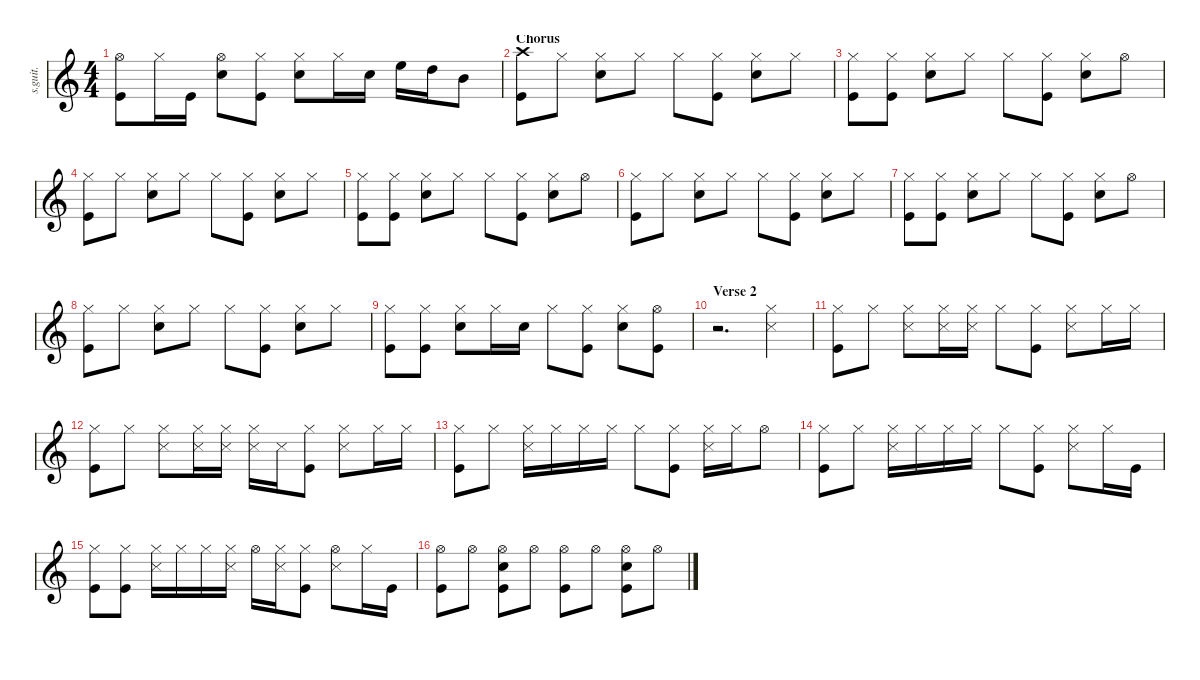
\defaultSystemsLayout 4
\hideDynamics
\bracketExtendMode nobrackets
\track ("Ethan Torchio (Drums)" "s.guit.") {instrument percussion}
\staff {score}
\articulation defaults
\ts (4 4)
\tempo (134 hide)
\clef g2
\ks c
("Hi-Hat (open)" "Kick (hit)").8{lyrics (0 "") lyrics (1 "") lyrics (2 "") lyrics (3 "") lyrics (4 "") dy ff} "Hi-Hat (closed)".16{lyrics (0 "") lyrics (1 "") lyrics (2 "") lyrics (3 "") lyrics (4 "")} "Kick (hit)".16{lyrics (0 "") lyrics (1 "") lyrics (2 "") lyrics (3 "") lyrics (4 "")} ("Hi-Hat (open)" "Snare (hit) 2").8{lyrics (0 "") lyrics (1 "") lyrics (2 "") lyrics (3 "") lyrics (4 "")} ("Kick (hit)" "Hi-Hat (closed)").8{lyrics (0 "") lyrics (1 "") lyrics (2 "") lyrics (3 "") lyrics (4 "")} ("Hi-Hat (closed)" "Snare (hit) 2").8{lyrics (0 "") lyrics (1 "") lyrics (2 "") lyrics (3 "") lyrics (4 "")} "Hi-Hat (closed)".16{lyrics (0 "") lyrics (1 "") lyrics (2 "") lyrics (3 "") lyrics (4 "")} "Snare (hit) 2".16{lyrics (0 "") lyrics (1 "") lyrics (2 "") lyrics (3 "") lyrics (4 "")} "High Floor Tom (hit)".16{lyrics (0 "") lyrics (1 "") lyrics (2 "") lyrics (3 "") lyrics (4 "")} "High Tom (hit)".16{lyrics (0 "") lyrics (1 "") lyrics (2 "") lyrics (3 "") lyrics (4 "")} "Mid Tom (hit)".8{lyrics (0 "") lyrics (1 "") lyrics (2 "") lyrics (3 "") lyrics (4 "")} |
\section ("" "Chorus")
("Crash high (hit)" "Kick (hit)").8{lyrics (0 "") lyrics (1 "") lyrics (2 "") lyrics (3 "") lyrics (4 "")} "Hi-Hat (closed)".8{lyrics (0 "") lyrics (1 "") lyrics (2 "") lyrics (3 "") lyrics (4 "")} ("Hi-Hat (closed)" "Snare (hit) 2").8{lyrics (0 "") lyrics (1 "") lyrics (2 "") lyrics (3 "") lyrics (4 "")} "Hi-Hat (closed)".8{lyrics (0 "") lyrics (1 "") lyrics (2 "") lyrics (3 "") lyrics (4 "")} "Hi-Hat (closed)".8{lyrics (0 "") lyrics (1 "") lyrics (2 "") lyrics (3 "") lyrics (4 "")} ("Hi-Hat (closed)" "Kick (hit)").8{lyrics (0 "") lyrics (1 "") lyrics (2 "") lyrics (3 "") lyrics (4 "")} ("Hi-Hat (closed)" "Snare (hit) 2").8{lyrics (0 "") lyrics (1 "") lyrics (2 "") lyrics (3 "") lyrics (4 "")} "Hi-Hat (closed)".8{lyrics (0 "") lyrics (1 "") lyrics (2 "") lyrics (3 "") lyrics (4 "")} |
("Hi-Hat (closed)" "Kick (hit)").8{lyrics (0 "") lyrics (1 "") lyrics (2 "") lyrics (3 "") lyrics (4 "")} ("Kick (hit)" "Hi-Hat (closed)").8{lyrics (0 "") lyrics (1 "") lyrics (2 "") lyrics (3 "") lyrics (4 "")} ("Hi-Hat (closed)" "Snare (hit) 2").8{lyrics (0 "") lyrics (1 "") lyrics (2 "") lyrics (3 "") lyrics (4 "")} "Hi-Hat (closed)".8{lyrics (0 "") lyrics (1 "") lyrics (2 "") lyrics (3 "") lyrics (4 "")} "Hi-Hat (closed)".8{lyrics (0 "") lyrics (1 "") lyrics (2 "") lyrics (3 "") lyrics (4 "")} ("Hi-Hat (closed)" "Kick (hit)").8{lyrics (0 "") lyrics (1 "") lyrics (2 "") lyrics (3 "") lyrics (4 "")} ("Hi-Hat (closed)" "Snare (hit) 2").8{lyrics (0 "") lyrics (1 "") lyrics (2 "") lyrics (3 "") lyrics (4 "")} "Hi-Hat (open)".8{lyrics (0 "") lyrics (1 "") lyrics (2 "") lyrics (3 "") lyrics (4 "")} |
("Kick (hit)" "Hi-Hat (closed)").8{lyrics (0 "") lyrics (1 "") lyrics (2 "") lyrics (3 "") lyrics (4 "")} "Hi-Hat (closed)".8{lyrics (0 "") lyrics (1 "") lyrics (2 "") lyrics (3 "") lyrics (4 "")} ("Hi-Hat (closed)" "Snare (hit) 2").8{lyrics (0 "") lyrics (1 "") lyrics (2 "") lyrics (3 "") lyrics (4 "")} "Hi-Hat (closed)".8{lyrics (0 "") lyrics (1 "") lyrics (2 "") lyrics (3 "") lyrics (4 "")} "Hi-Hat (closed)".8{lyrics (0 "") lyrics (1 "") lyrics (2 "") lyrics (3 "") lyrics (4 "")} ("Hi-Hat (closed)" "Kick (hit)").8{lyrics (0 "") lyrics (1 "") lyrics (2 "") lyrics (3 "") lyrics (4 "")} ("Hi-Hat (closed)" "Snare (hit) 2").8{lyrics (0 "") lyrics (1 "") lyrics (2 "") lyrics (3 "") lyrics (4 "")} "Hi-Hat (closed)".8{lyrics (0 "") lyrics (1 "") lyrics (2 "") lyrics (3 "") lyrics (4 "")} |
("Hi-Hat (closed)" "Kick (hit)").8{lyrics (0 "") lyrics (1 "") lyrics (2 "") lyrics (3 "") lyrics (4 "")} ("Kick (hit)" "Hi-Hat (closed)").8{lyrics (0 "") lyrics (1 "") lyrics (2 "") lyrics (3 "") lyrics (4 "")} ("Hi-Hat (closed)" "Snare (hit) 2").8{lyrics (0 "") lyrics (1 "") lyrics (2 "") lyrics (3 "") lyrics (4 "")} "Hi-Hat (closed)".8{lyrics (0 "") lyrics (1 "") lyrics (2 "") lyrics (3 "") lyrics (4 "")} "Hi-Hat (closed)".8{lyrics (0 "") lyrics (1 "") lyrics (2 "") lyrics (3 "") lyrics (4 "")} ("Hi-Hat (closed)" "Kick (hit)").8{lyrics (0 "") lyrics (1 "") lyrics (2 "") lyrics (3 "") lyrics (4 "")} ("Hi-Hat (closed)" "Snare (hit) 2").8{lyrics (0 "") lyrics (1 "") lyrics (2 "") lyrics (3 "") lyrics (4 "")} "Hi-Hat (open)".8{lyrics (0 "") lyrics (1 "") lyrics (2 "") lyrics (3 "") lyrics (4 "")} |
("Kick (hit)" "Hi-Hat (closed)").8{lyrics (0 "") lyrics (1 "") lyrics (2 "") lyrics (3 "") lyrics (4 "")} "Hi-Hat (closed)".8{lyrics (0 "") lyrics (1 "") lyrics (2 "") lyrics (3 "") lyrics (4 "")} ("Hi-Hat (closed)" "Snare (hit) 2").8{lyrics (0 "") lyrics (1 "") lyrics (2 "") lyrics (3 "") lyrics (4 "")} "Hi-Hat (closed)".8{lyrics (0 "") lyrics (1 "") lyrics (2 "") lyrics (3 "") lyrics (4 "")} "Hi-Hat (closed)".8{lyrics (0 "") lyrics (1 "") lyrics (2 "") lyrics (3 "") lyrics (4 "")} ("Hi-Hat (closed)" "Kick (hit)").8{lyrics (0 "") lyrics (1 "") lyrics (2 "") lyrics (3 "") lyrics (4 "")} ("Hi-Hat (closed)" "Snare (hit) 2").8{lyrics (0 "") lyrics (1 "") lyrics (2 "") lyrics (3 "") lyrics (4 "")} "Hi-Hat (closed)".8{lyrics (0 "") lyrics (1 "") lyrics (2 "") lyrics (3 "") lyrics (4 "")} |
("Hi-Hat (closed)" "Kick (hit)").8{lyrics (0 "") lyrics (1 "") lyrics (2 "") lyrics (3 "") lyrics (4 "")} ("Kick (hit)" "Hi-Hat (closed)").8{lyrics (0 "") lyrics (1 "") lyrics (2 "") lyrics (3 "") lyrics (4 "")} ("Hi-Hat (closed)" "Snare (hit) 2").8{lyrics (0 "") lyrics (1 "") lyrics (2 "") lyrics (3 "") lyrics (4 "")} "Hi-Hat (closed)".8{lyrics (0 "") lyrics (1 "") lyrics (2 "") lyrics (3 "") lyrics (4 "")} "Hi-Hat (closed)".8{lyrics (0 "") lyrics (1 "") lyrics (2 "") lyrics (3 "") lyrics (4 "")} ("Hi-Hat (closed)" "Kick (hit)").8{lyrics (0 "") lyrics (1 "") lyrics (2 "") lyrics (3 "") lyrics (4 "")} ("Hi-Hat (closed)" "Snare (hit) 2").8{lyrics (0 "") lyrics (1 "") lyrics (2 "") lyrics (3 "") lyrics (4 "")} "Hi-Hat (open)".8{lyrics (0 "") lyrics (1 "") lyrics (2 "") lyrics (3 "") lyrics (4 "")} |
("Kick (hit)" "Hi-Hat (closed)").8{lyrics (0 "") lyrics (1 "") lyrics (2 "") lyrics (3 "") lyrics (4 "")} "Hi-Hat (closed)".8{lyrics (0 "") lyrics (1 "") lyrics (2 "") lyrics (3 "") lyrics (4 "")} ("Hi-Hat (closed)" "Snare (hit) 2").8{lyrics (0 "") lyrics (1 "") lyrics (2 "") lyrics (3 "") lyrics (4 "")} "Hi-Hat (closed)".8{lyrics (0 "") lyrics (1 "") lyrics (2 "") lyrics (3 "") lyrics (4 "")} "Hi-Hat (closed)".8{lyrics (0 "") lyrics (1 "") lyrics (2 "") lyrics (3 "") lyrics (4 "")} ("Hi-Hat (closed)" "Kick (hit)").8{lyrics (0 "") lyrics (1 "") lyrics (2 "") lyrics (3 "") lyrics (4 "")} ("Hi-Hat (closed)" "Snare (hit) 2").8{lyrics (0 "") lyrics (1 "") lyrics (2 "") lyrics (3 "") lyrics (4 "")} "Hi-Hat (closed)".8{lyrics (0 "") lyrics (1 "") lyrics (2 "") lyrics (3 "") lyrics (4 "")} |
("Kick (hit)" "Hi-Hat (closed)").8{lyrics (0 "") lyrics (1 "") lyrics (2 "") lyrics (3 "") lyrics (4 "")} ("Kick (hit)" "Hi-Hat (closed)").8{lyrics (0 "") lyrics (1 "") lyrics (2 "") lyrics (3 "") lyrics (4 "")} ("Snare (hit) 2" "Hi-Hat (closed)").8{lyrics (0 "") lyrics (1 "") lyrics (2 "") lyrics (3 "") lyrics (4 "")} "Hi-Hat (closed)".16{lyrics (0 "") lyrics (1 "") lyrics (2 "") lyrics (3 "") lyrics (4 "")} "Snare (hit) 2".16{lyrics (0 "") lyrics (1 "") lyrics (2 "") lyrics (3 "") lyrics (4 "")} "Hi-Hat (closed)".8{lyrics (0 "") lyrics (1 "") lyrics (2 "") lyrics (3 "") lyrics (4 "")} ("Hi-Hat (closed)" "Kick (hit)").8{lyrics (0 "") lyrics (1 "") lyrics (2 "") lyrics (3 "") lyrics (4 "")} ("Hi-Hat (closed)" "Snare (hit) 2").8{lyrics (0 "") lyrics (1 "") lyrics (2 "") lyrics (3 "") lyrics (4 "")} ("Hi-Hat (open)" "Kick (hit)").8{lyrics (0 "") lyrics (1 "") lyrics (2 "") lyrics (3 "") lyrics (4 "")} |
\section ("" "Verse 2")
r.2{d} ("Hi-Hat (closed)" "Metronome (hit)").4{lyrics (0 "") lyrics (1 "") lyrics (2 "") lyrics (3 "") lyrics (4 "")} |
("Hi-Hat (closed)" "Kick (hit)").8{lyrics (0 "") lyrics (1 "") lyrics (2 "") lyrics (3 "") lyrics (4 "")} "Hi-Hat (closed)".8{lyrics (0 "") lyrics (1 "") lyrics (2 "") lyrics (3 "") lyrics (4 "")} ("Hi-Hat (closed)" "Metronome (hit)").8{lyrics (0 "") lyrics (1 "") lyrics (2 "") lyrics (3 "") lyrics (4 "")} ("Hi-Hat (closed)" "Metronome (hit)").16{lyrics (0 "") lyrics (1 "") lyrics (2 "") lyrics (3 "") lyrics (4 "")} ("Hi-Hat (closed)" "Metronome (hit)").16{lyrics (0 "") lyrics (1 "") lyrics (2 "") lyrics (3 "") lyrics (4 "")} "Hi-Hat (closed)".8{lyrics (0 "") lyrics (1 "") lyrics (2 "") lyrics (3 "") lyrics (4 "")} ("Hi-Hat (closed)" "Kick (hit)").8{lyrics (0 "") lyrics (1 "") lyrics (2 "") lyrics (3 "") lyrics (4 "")} ("Hi-Hat (closed)" "Metronome (hit)").8{lyrics (0 "") lyrics (1 "") lyrics (2 "") lyrics (3 "") lyrics (4 "")} "Hi-Hat (closed)".16{lyrics (0 "") lyrics (1 "") lyrics (2 "") lyrics (3 "") lyrics (4 "")} "Hi-Hat (closed)".16{lyrics (0 "") lyrics (1 "") lyrics (2 "") lyrics (3 "") lyrics (4 "")} |
("Hi-Hat (closed)" "Kick (hit)").8{lyrics (0 "") lyrics (1 "") lyrics (2 "") lyrics (3 "") lyrics (4 "")} "Hi-Hat (closed)".8{lyrics (0 "") lyrics (1 "") lyrics (2 "") lyrics (3 "") lyrics (4 "")} ("Hi-Hat (closed)" "Metronome (hit)").8{lyrics (0 "") lyrics (1 "") lyrics (2 "") lyrics (3 "") lyrics (4 "")} ("Hi-Hat (closed)" "Metronome (hit)").16{lyrics (0 "") lyrics (1 "") lyrics (2 "") lyrics (3 "") lyrics (4 "")} ("Hi-Hat (closed)" "Metronome (hit)").16{lyrics (0 "") lyrics (1 "") lyrics (2 "") lyrics (3 "") lyrics (4 "")} ("Hi-Hat (closed)" "Metronome (hit)").16{lyrics (0 "") lyrics (1 "") lyrics (2 "") lyrics (3 "") lyrics (4 "")} "Metronome (hit)".16{lyrics (0 "") lyrics (1 "") lyrics (2 "") lyrics (3 "") lyrics (4 "")} ("Kick (hit)" "Hi-Hat (closed)").8{lyrics (0 "") lyrics (1 "") lyrics (2 "") lyrics (3 "") lyrics (4 "")} ("Hi-Hat (closed)" "Metronome (hit)").8{lyrics (0 "") lyrics (1 "") lyrics (2 "") lyrics (3 "") lyrics (4 "")} "Hi-Hat (closed)".16{lyrics (0 "") lyrics (1 "") lyrics (2 "") lyrics (3 "") lyrics (4 "")} "Hi-Hat (closed)".16{lyrics (0 "") lyrics (1 "") lyrics (2 "") lyrics (3 "") lyrics (4 "")} |
("Kick (hit)" "Hi-Hat (closed)").8{lyrics (0 "") lyrics (1 "") lyrics (2 "") lyrics (3 "") lyrics (4 "")} "Hi-Hat (closed)".8{lyrics (0 "") lyrics (1 "") lyrics (2 "") lyrics (3 "") lyrics (4 "")} ("Hi-Hat (closed)" "Metronome (hit)").16{lyrics (0 "") lyrics (1 "") lyrics (2 "") lyrics (3 "") lyrics (4 "")} "Hi-Hat (closed)".16{lyrics (0 "") lyrics (1 "") lyrics (2 "") lyrics (3 "") lyrics (4 "")} "Hi-Hat (closed)".16{lyrics (0 "") lyrics (1 "") lyrics (2 "") lyrics (3 "") lyrics (4 "")} "Hi-Hat (closed)".16{lyrics (0 "") lyrics (1 "") lyrics (2 "") lyrics (3 "") lyrics (4 "")} "Hi-Hat (closed)".8{lyrics (0 "") lyrics (1 "") lyrics (2 "") lyrics (3 "") lyrics (4 "")} ("Kick (hit)" "Hi-Hat (closed)").8{lyrics (0 "") lyrics (1 "") lyrics (2 "") lyrics (3 "") lyrics (4 "")} ("Hi-Hat (closed)" "Metronome (hit)").16{lyrics (0 "") lyrics (1 "") lyrics (2 "") lyrics (3 "") lyrics (4 "")} "Hi-Hat (closed)".16{lyrics (0 "") lyrics (1 "") lyrics (2 "") lyrics (3 "") lyrics (4 "")} "Hi-Hat (open)".8{lyrics (0 "") lyrics (1 "") lyrics (2 "") lyrics (3 "") lyrics (4 "")} |
("Kick (hit)" "Hi-Hat (closed)").8{lyrics (0 "") lyrics (1 "") lyrics (2 "") lyrics (3 "") lyrics (4 "")} "Hi-Hat (closed)".8{lyrics (0 "") lyrics (1 "") lyrics (2 "") lyrics (3 "") lyrics (4 "")} ("Hi-Hat (closed)" "Metronome (hit)").16{lyrics (0 "") lyrics (1 "") lyrics (2 "") lyrics (3 "") lyrics (4 "")} "Hi-Hat (closed)".16{lyrics (0 "") lyrics (1 "") lyrics (2 "") lyrics (3 "") lyrics (4 "")} "Hi-Hat (closed)".16{lyrics (0 "") lyrics (1 "") lyrics (2 "") lyrics (3 "") lyrics (4 "")} "Hi-Hat (closed)".16{lyrics (0 "") lyrics (1 "") lyrics (2 "") lyrics (3 "") lyrics (4 "")} "Hi-Hat (closed)".8{lyrics (0 "") lyrics (1 "") lyrics (2 "") lyrics (3 "") lyrics (4 "")} ("Kick (hit)" "Hi-Hat (closed)").8{lyrics (0 "") lyrics (1 "") lyrics (2 "") lyrics (3 "") lyrics (4 "")} ("Hi-Hat (closed)" "Metronome (hit)").8{lyrics (0 "") lyrics (1 "") lyrics (2 "") lyrics (3 "") lyrics (4 "")} "Hi-Hat (closed)".16{lyrics (0 "") lyrics (1 "") lyrics (2 "") lyrics (3 "") lyrics (4 "")} "Kick (hit)".16{lyrics (0 "") lyrics (1 "") lyrics (2 "") lyrics (3 "") lyrics (4 "")} |
("Kick (hit)" "Hi-Hat (closed)").8{lyrics (0 "") lyrics (1 "") lyrics (2 "") lyrics (3 "") lyrics (4 "")} ("Kick (hit)" "Hi-Hat (closed)").8{lyrics (0 "") lyrics (1 "") lyrics (2 "") lyrics (3 "") lyrics (4 "")} ("Hi-Hat (closed)" "Metronome (hit)").16{lyrics (0 "") lyrics (1 "") lyrics (2 "") lyrics (3 "") lyrics (4 "")} "Hi-Hat (closed)".16{lyrics (0 "") lyrics (1 "") lyrics (2 "") lyrics (3 "") lyrics (4 "")} "Hi-Hat (closed)".16{lyrics (0 "") lyrics (1 "") lyrics (2 "") lyrics (3 "") lyrics (4 "")} ("Hi-Hat (closed)" "Metronome (hit)").16{lyrics (0 "") lyrics (1 "") lyrics (2 "") lyrics (3 "") lyrics (4 "")} "Hi-Hat (open)".16{lyrics (0 "") lyrics (1 "") lyrics (2 "") lyrics (3 "") lyrics (4 "")} ("Hi-Hat (closed)" "Metronome (hit)").16{lyrics (0 "") lyrics (1 "") lyrics (2 "") lyrics (3 "") lyrics (4 "")} ("Kick (hit)" "Hi-Hat (closed)").8{lyrics (0 "") lyrics (1 "") lyrics (2 "") lyrics (3 "") lyrics (4 "")} ("Hi-Hat (open)" "Metronome (hit)").8{lyrics (0 "") lyrics (1 "") lyrics (2 "") lyrics (3 "") lyrics (4 "")} "Hi-Hat (closed)".16{lyrics (0 "") lyrics (1 "") lyrics (2 "") lyrics (3 "") lyrics (4 "")} "Kick (hit)".16{lyrics (0 "") lyrics (1 "") lyrics (2 "") lyrics (3 "") lyrics (4 "")} |
("Hi-Hat (open)" "Kick (hit)").8{lyrics (0 "") lyrics (1 "") lyrics (2 "") lyrics (3 "") lyrics (4 "")} "Hi-Hat (open)".8{lyrics (0 "") lyrics (1 "") lyrics (2 "") lyrics (3 "") lyrics (4 "")} ("Hi-Hat (open)" "Kick (hit)" "Snare (hit) 2").8{lyrics (0 "") lyrics (1 "") lyrics (2 "") lyrics (3 "") lyrics (4 "")} "Hi-Hat (open)".8{lyrics (0 "") lyrics (1 "") lyrics (2 "") lyrics (3 "") lyrics (4 "")} ("Hi-Hat (open)" "Kick (hit)").8{lyrics (0 "") lyrics (1 "") lyrics (2 "") lyrics (3 "") lyrics (4 "")} "Hi-Hat (open)".8{lyrics (0 "") lyrics (1 "") lyrics (2 "") lyrics (3 "") lyrics (4 "")} ("Hi-Hat (open)" "Kick (hit)" "Snare (hit) 2").8{lyrics (0 "") lyrics (1 "") lyrics (2 "") lyrics (3 "") lyrics (4 "")} "Hi-Hat (open)".8{lyrics (0 "") lyrics (1 "") lyrics (2 "") lyrics (3 "") lyrics (4 "")}
